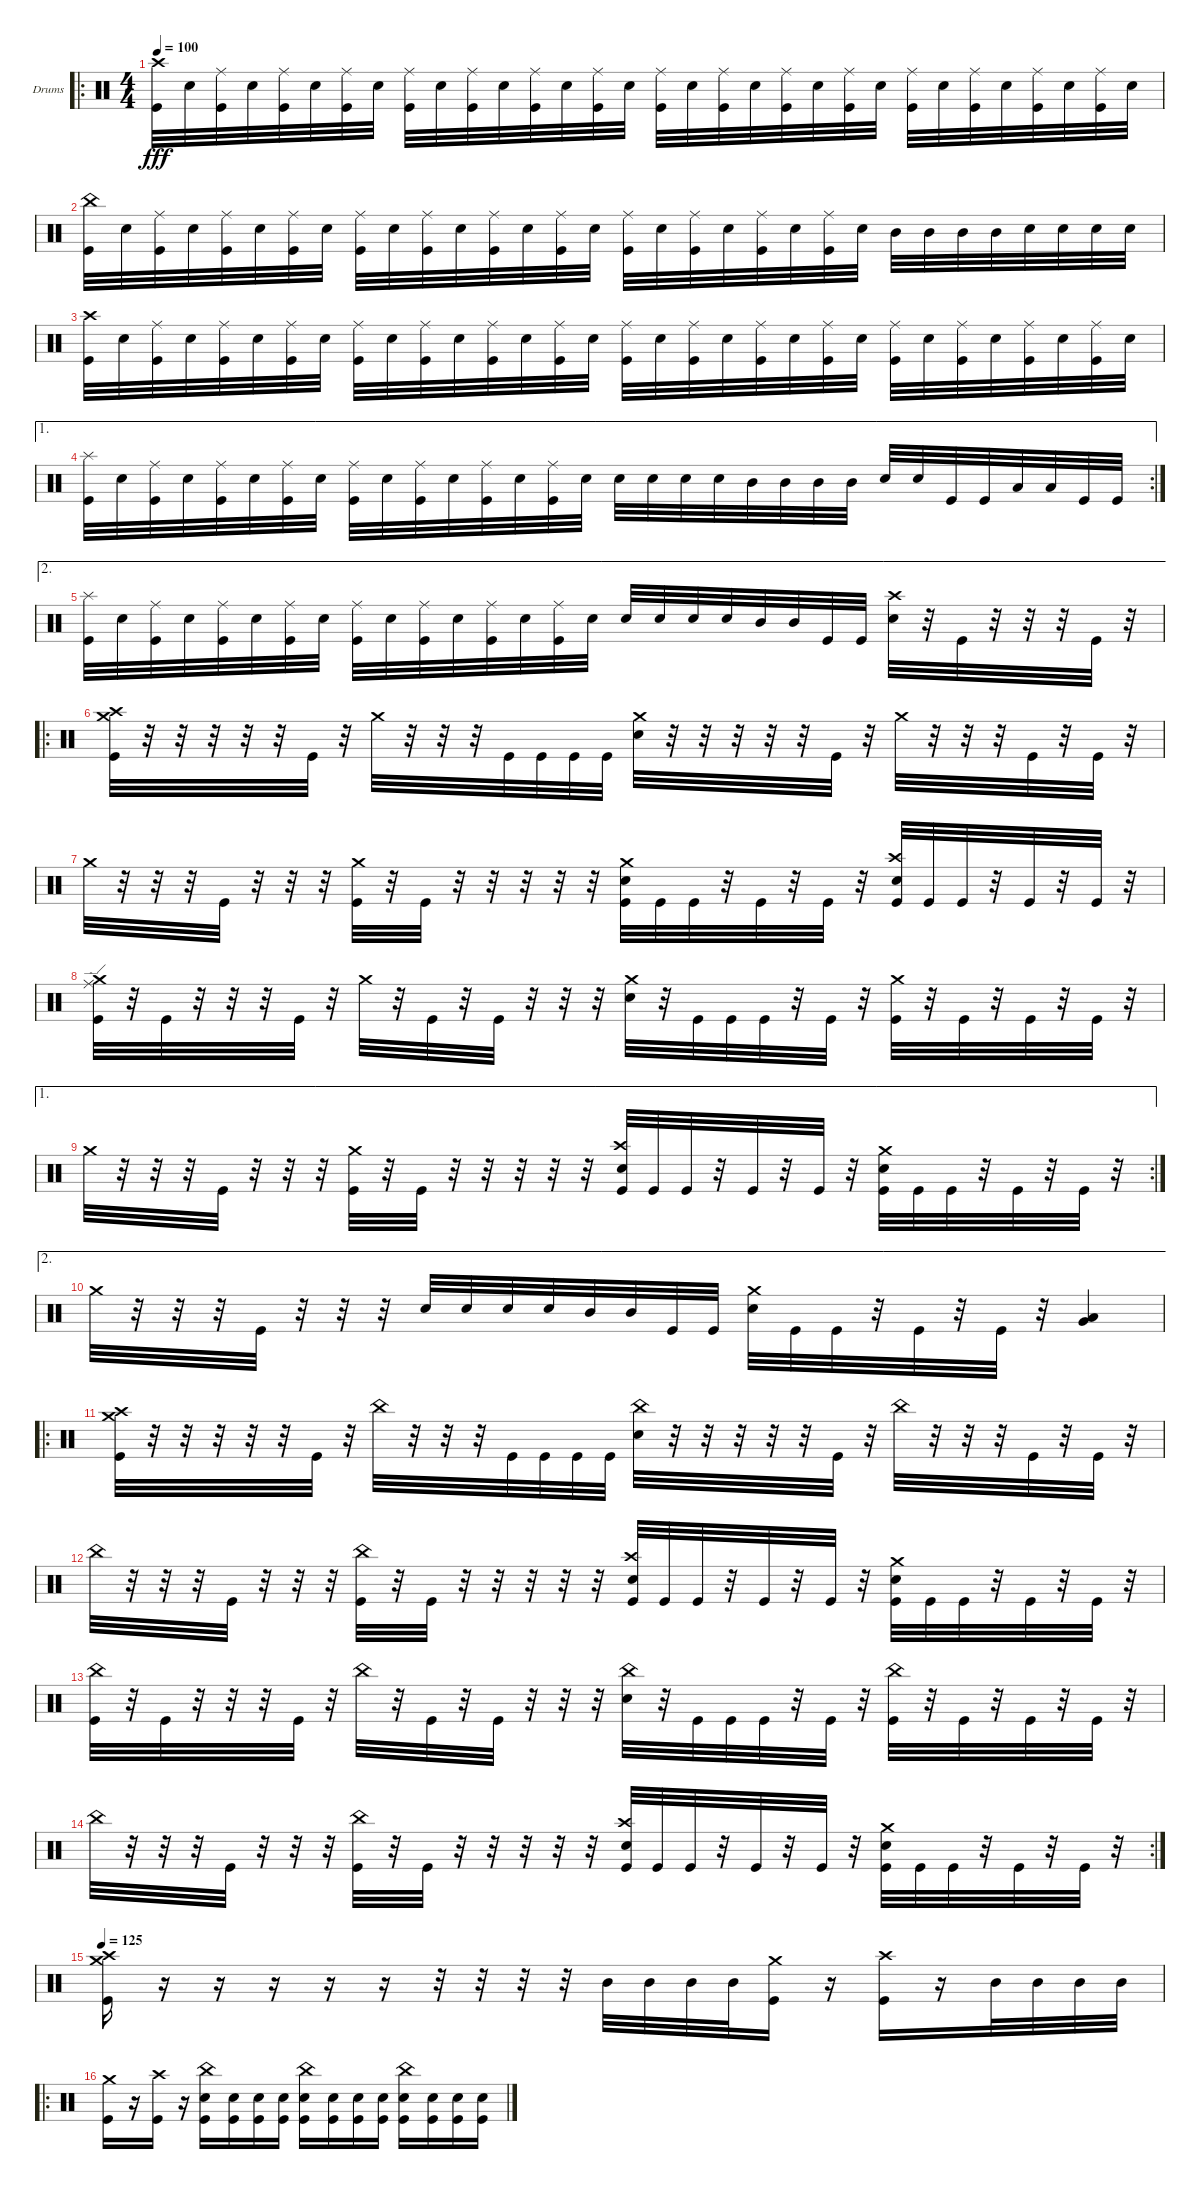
\bracketExtendMode groupsimilarinstruments
\firstSystemTrackNameOrientation horizontal
\otherSystemsTrackNameOrientation horizontal
\track ("Drumkit" "Drums") {instrument percussion}
\staff {score}
\articulation defaults
\ro
\ts (4 4)
\tempo 100
\clef neutral
\ks c
("Kick (hit)" "Crash high (hit)").32{dy fff} "Snare (hit) 2".32 ("Kick (hit)" "Ride (middle)").32 "Snare (hit) 2".32 ("Kick (hit)" "Ride (middle)").32 "Snare (hit) 2".32 ("Kick (hit)" "Ride (middle)").32 "Snare (hit) 2".32 ("Kick (hit)" "Ride (middle)").32 "Snare (hit) 2".32 ("Kick (hit)" "Ride (middle)").32 "Snare (hit) 2".32 ("Kick (hit)" "Ride (middle)").32 "Snare (hit) 2".32 ("Kick (hit)" "Ride (middle)").32 "Snare (hit) 2".32 ("Kick (hit)" "Ride (middle)").32 "Snare (hit) 2".32 ("Kick (hit)" "Ride (middle)").32 "Snare (hit) 2".32 ("Kick (hit)" "Ride (middle)").32 "Snare (hit) 2".32 ("Kick (hit)" "Ride (middle)").32 "Snare (hit) 2".32 ("Kick (hit)" "Ride (middle)").32 "Snare (hit) 2".32 ("Kick (hit)" "Ride (middle)").32 "Snare (hit) 2".32 ("Kick (hit)" "Ride (middle)").32 "Snare (hit) 2".32 ("Kick (hit)" "Ride (middle)").32 "Snare (hit) 2".32 |
("Kick (hit)" "China (hit)").32 "Snare (hit) 2".32 ("Kick (hit)" "Ride (middle)").32 "Snare (hit) 2".32 ("Kick (hit)" "Ride (middle)").32 "Snare (hit) 2".32 ("Kick (hit)" "Ride (middle)").32 "Snare (hit) 2".32 ("Kick (hit)" "Ride (middle)").32 "Snare (hit) 2".32 ("Kick (hit)" "Ride (middle)").32 "Snare (hit) 2".32 ("Kick (hit)" "Ride (middle)").32 "Snare (hit) 2".32 ("Kick (hit)" "Ride (middle)").32 "Snare (hit) 2".32 ("Kick (hit)" "Ride (middle)").32 "Snare (hit) 2".32 ("Kick (hit)" "Ride (middle)").32 "Snare (hit) 2".32 ("Kick (hit)" "Ride (middle)").32 "Snare (hit) 2".32 ("Kick (hit)" "Ride (middle)").32 "Snare (hit) 2".32 "Mid Tom (hit)".32 "Mid Tom (hit)".32 "Mid Tom (hit)".32 "Mid Tom (hit)".32 "Snare (hit) 2".32 "Snare (hit) 2".32 "Snare (hit) 2".32 "Snare (hit) 2".32 |
("Kick (hit)" "Crash high (hit)").32 "Snare (hit) 2".32 ("Kick (hit)" "Ride (middle)").32 "Snare (hit) 2".32 ("Kick (hit)" "Ride (middle)").32 "Snare (hit) 2".32 ("Kick (hit)" "Ride (middle)").32 "Snare (hit) 2".32 ("Kick (hit)" "Ride (middle)").32 "Snare (hit) 2".32 ("Kick (hit)" "Ride (middle)").32 "Snare (hit) 2".32 ("Kick (hit)" "Ride (middle)").32 "Snare (hit) 2".32 ("Kick (hit)" "Ride (middle)").32 "Snare (hit) 2".32 ("Kick (hit)" "Ride (middle)").32 "Snare (hit) 2".32 ("Kick (hit)" "Ride (middle)").32 "Snare (hit) 2".32 ("Kick (hit)" "Ride (middle)").32 "Snare (hit) 2".32 ("Kick (hit)" "Ride (middle)").32 "Snare (hit) 2".32 ("Kick (hit)" "Ride (middle)").32 "Snare (hit) 2".32 ("Kick (hit)" "Ride (middle)").32 "Snare (hit) 2".32 ("Kick (hit)" "Ride (middle)").32 "Snare (hit) 2".32 ("Kick (hit)" "Ride (middle)").32 "Snare (hit) 2".32 |
\ae 1
\rc 2
("Kick (hit)" "Splash (hit)").32 "Snare (hit) 2".32 ("Kick (hit)" "Ride (middle)").32 "Snare (hit) 2".32 ("Kick (hit)" "Ride (middle)").32 "Snare (hit) 2".32 ("Kick (hit)" "Ride (middle)").32 "Snare (hit) 2".32 ("Kick (hit)" "Ride (middle)").32 "Snare (hit) 2".32 ("Kick (hit)" "Ride (middle)").32 "Snare (hit) 2".32 ("Kick (hit)" "Ride (middle)").32 "Snare (hit) 2".32 ("Kick (hit)" "Ride (middle)").32 "Snare (hit) 2".32 "Snare (hit) 2".32 "Snare (hit) 2".32 "Snare (hit) 2".32 "Snare (hit) 2".32 "Mid Tom (hit)".32 "Mid Tom (hit)".32 "Mid Tom (hit)".32 "Mid Tom (hit)".32 "Snare (hit) 2".32 "Snare (hit) 2".32 "Kick (hit)".32 "Kick (hit)".32 "Low Tom (hit)".32 "Low Tom (hit)".32 "Kick (hit)".32 "Kick (hit)".32 |
\ae 2
("Kick (hit)" "Splash (hit)").32 "Snare (hit) 2".32 ("Kick (hit)" "Ride (middle)").32 "Snare (hit) 2".32 ("Kick (hit)" "Ride (middle)").32 "Snare (hit) 2".32 ("Kick (hit)" "Ride (middle)").32 "Snare (hit) 2".32 ("Kick (hit)" "Ride (middle)").32 "Snare (hit) 2".32 ("Kick (hit)" "Ride (middle)").32 "Snare (hit) 2".32 ("Kick (hit)" "Ride (middle)").32 "Snare (hit) 2".32 ("Kick (hit)" "Ride (middle)").32 "Snare (hit) 2".32 "Snare (hit) 2".32 "Snare (hit) 2".32 "Snare (hit) 2".32 "Snare (hit) 2".32 "Mid Tom (hit)".32 "Mid Tom (hit)".32 "Kick (hit)".32 "Kick (hit)".32 ("Crash high (hit)" "Snare (hit) 2").32 r.32 "Kick (hit)".32 r.32 r.32 r.32 "Kick (hit)".32 r.32 |
\ro
("Crash medium (hit)" "Kick (hit)" "Crash high (hit)").32 r.32 r.32 r.32 r.32 r.32 "Kick (hit)".32 r.32 "Crash medium (hit)".32 r.32 r.32 r.32 "Kick (hit)".32 "Kick (hit)".32 "Kick (hit)".32 "Kick (hit)".32 ("Snare (hit) 2" "Crash medium (hit)").32 r.32 r.32 r.32 r.32 r.32 "Kick (hit)".32 r.32 "Crash medium (hit)".32 r.32 r.32 r.32 "Kick (hit)".32 r.32 "Kick (hit)".32 r.32 |
"Crash medium (hit)".32 r.32 r.32 r.32 "Kick (hit)".32 r.32 r.32 r.32 ("Kick (hit)" "Crash medium (hit)").32 r.32 "Kick (hit)".32 r.32 r.32 r.32 r.32 r.32 ("Kick (hit)" "Snare (hit) 2" "Crash medium (hit)").32 "Kick (hit)".32 "Kick (hit)".32 r.32 "Kick (hit)".32 r.32 "Kick (hit)".32 r.32 ("Kick (hit)" "Snare (hit) 2" "Crash high (hit)").32 "Kick (hit)".32 "Kick (hit)".32 r.32 "Kick (hit)".32 r.32 "Kick (hit)".32 r.32 |
("Kick (hit)" "Ride (edge)" "Crash medium (hit)").32 r.32 "Kick (hit)".32 r.32 r.32 r.32 "Kick (hit)".32 r.32 "Crash medium (hit)".32 r.32 "Kick (hit)".32 r.32 "Kick (hit)".32 r.32 r.32 r.32 ("Snare (hit) 2" "Crash medium (hit)").32 r.32 "Kick (hit)".32 "Kick (hit)".32 "Kick (hit)".32 r.32 "Kick (hit)".32 r.32 ("Kick (hit)" "Crash medium (hit)").32 r.32 "Kick (hit)".32 r.32 "Kick (hit)".32 r.32 "Kick (hit)".32 r.32 |
\ae 1
\rc 2 "Crash medium (hit)".32
r.32 r.32 r.32 "Kick (hit)".32 r.32 r.32 r.32 ("Kick (hit)" "Crash medium (hit)").32 r.32 "Kick (hit)".32 r.32 r.32 r.32 r.32 r.32 ("Kick (hit)" "Snare (hit) 2" "Crash high (hit)").32 "Kick (hit)".32 "Kick (hit)".32 r.32 "Kick (hit)".32 r.32 "Kick (hit)".32 r.32 ("Kick (hit)" "Snare (hit) 2" "Crash medium (hit)").32 "Kick (hit)".32 "Kick (hit)".32 r.32 "Kick (hit)".32 r.32 "Kick (hit)".32 r.32 |
\ae 2 "Crash medium (hit)".32
r.32 r.32 r.32 "Kick (hit)".32 r.32 r.32 r.32 "Snare (hit) 2".32 "Snare (hit) 2".32 "Snare (hit) 2".32 "Snare (hit) 2".32 "Mid Tom (hit)".32 "Mid Tom (hit)".32 "Kick (hit)".32 "Kick (hit)".32 ("Crash medium (hit)" "Snare (hit) 2").32 "Kick (hit)".32 "Kick (hit)".32 r.32 "Kick (hit)".32 r.32 "Kick (hit)".32 r.32 ("Very Low Tom (hit)" "Low Tom (hit)").4 |
\ro
("Crash medium (hit)" "Kick (hit)" "Crash high (hit)").32 r.32 r.32 r.32 r.32 r.32 "Kick (hit)".32 r.32 "China (hit)".32 r.32 r.32 r.32 "Kick (hit)".32 "Kick (hit)".32 "Kick (hit)".32 "Kick (hit)".32 ("Snare (hit) 2" "China (hit)").32 r.32 r.32 r.32 r.32 r.32 "Kick (hit)".32 r.32 "China (hit)".32 r.32 r.32 r.32 "Kick (hit)".32 r.32 "Kick (hit)".32 r.32 |
"China (hit)".32 r.32 r.32 r.32 "Kick (hit)".32 r.32 r.32 r.32 ("Kick (hit)" "China (hit)").32 r.32 "Kick (hit)".32 r.32 r.32 r.32 r.32 r.32 ("Kick (hit)" "Snare (hit) 2" "Crash high (hit)").32 "Kick (hit)".32 "Kick (hit)".32 r.32 "Kick (hit)".32 r.32 "Kick (hit)".32 r.32 ("Kick (hit)" "Snare (hit) 2" "Crash medium (hit)").32 "Kick (hit)".32 "Kick (hit)".32 r.32 "Kick (hit)".32 r.32 "Kick (hit)".32 r.32 |
("Kick (hit)" "China (hit)").32 r.32 "Kick (hit)".32 r.32 r.32 r.32 "Kick (hit)".32 r.32 "China (hit)".32 r.32 "Kick (hit)".32 r.32 "Kick (hit)".32 r.32 r.32 r.32 ("Snare (hit) 2" "China (hit)").32 r.32 "Kick (hit)".32 "Kick (hit)".32 "Kick (hit)".32 r.32 "Kick (hit)".32 r.32 ("Kick (hit)" "China (hit)").32 r.32 "Kick (hit)".32 r.32 "Kick (hit)".32 r.32 "Kick (hit)".32 r.32 |
\rc 2 "China (hit)".32
r.32 r.32 r.32 "Kick (hit)".32 r.32 r.32 r.32 ("Kick (hit)" "China (hit)").32 r.32 "Kick (hit)".32 r.32 r.32 r.32 r.32 r.32 ("Kick (hit)" "Snare (hit) 2" "Crash high (hit)").32 "Kick (hit)".32 "Kick (hit)".32 r.32 "Kick (hit)".32 r.32 "Kick (hit)".32 r.32 ("Kick (hit)" "Snare (hit) 2" "Crash medium (hit)").32 "Kick (hit)".32 "Kick (hit)".32 r.32 "Kick (hit)".32 r.32 "Kick (hit)".32 r.32 |
\tempo 125
("Kick (hit)" "Crash medium (hit)" "Crash high (hit)").16 r.16 r.16 r.16 r.16 r.16 r.32 r.32 r.32 r.32 "Mid Tom (hit)".32 "Mid Tom (hit)".32 "Mid Tom (hit)".32 "Mid Tom (hit)".32 ("Kick (hit)" "Crash medium (hit)").16 r.16 ("Kick (hit)" "Crash high (hit)").16 r.16 "Mid Tom (hit)".32 "Mid Tom (hit)".32 "Mid Tom (hit)".32 "Mid Tom (hit)".32 |
\ro
("Kick (hit)" "Crash medium (hit)").16 r.16 ("Crash high (hit)" "Kick (hit)").16 r.16 ("Snare (hit) 2" "Kick (hit)" "China (hit)").16 ("Snare (hit) 2" "Kick (hit)").16 ("Snare (hit) 2" "Kick (hit)").16 ("Snare (hit) 2" "Kick (hit)").16 ("Snare (hit) 2" "Kick (hit)" "China (hit)").16 ("Snare (hit) 2" "Kick (hit)").16 ("Snare (hit) 2" "Kick (hit)").16 ("Snare (hit) 2" "Kick (hit)").16 ("Snare (hit) 2" "Kick (hit)" "China (hit)").16 ("Snare (hit) 2" "Kick (hit)").16 ("Snare (hit) 2" "Kick (hit)").16 ("Snare (hit) 2" "Kick (hit)").16
